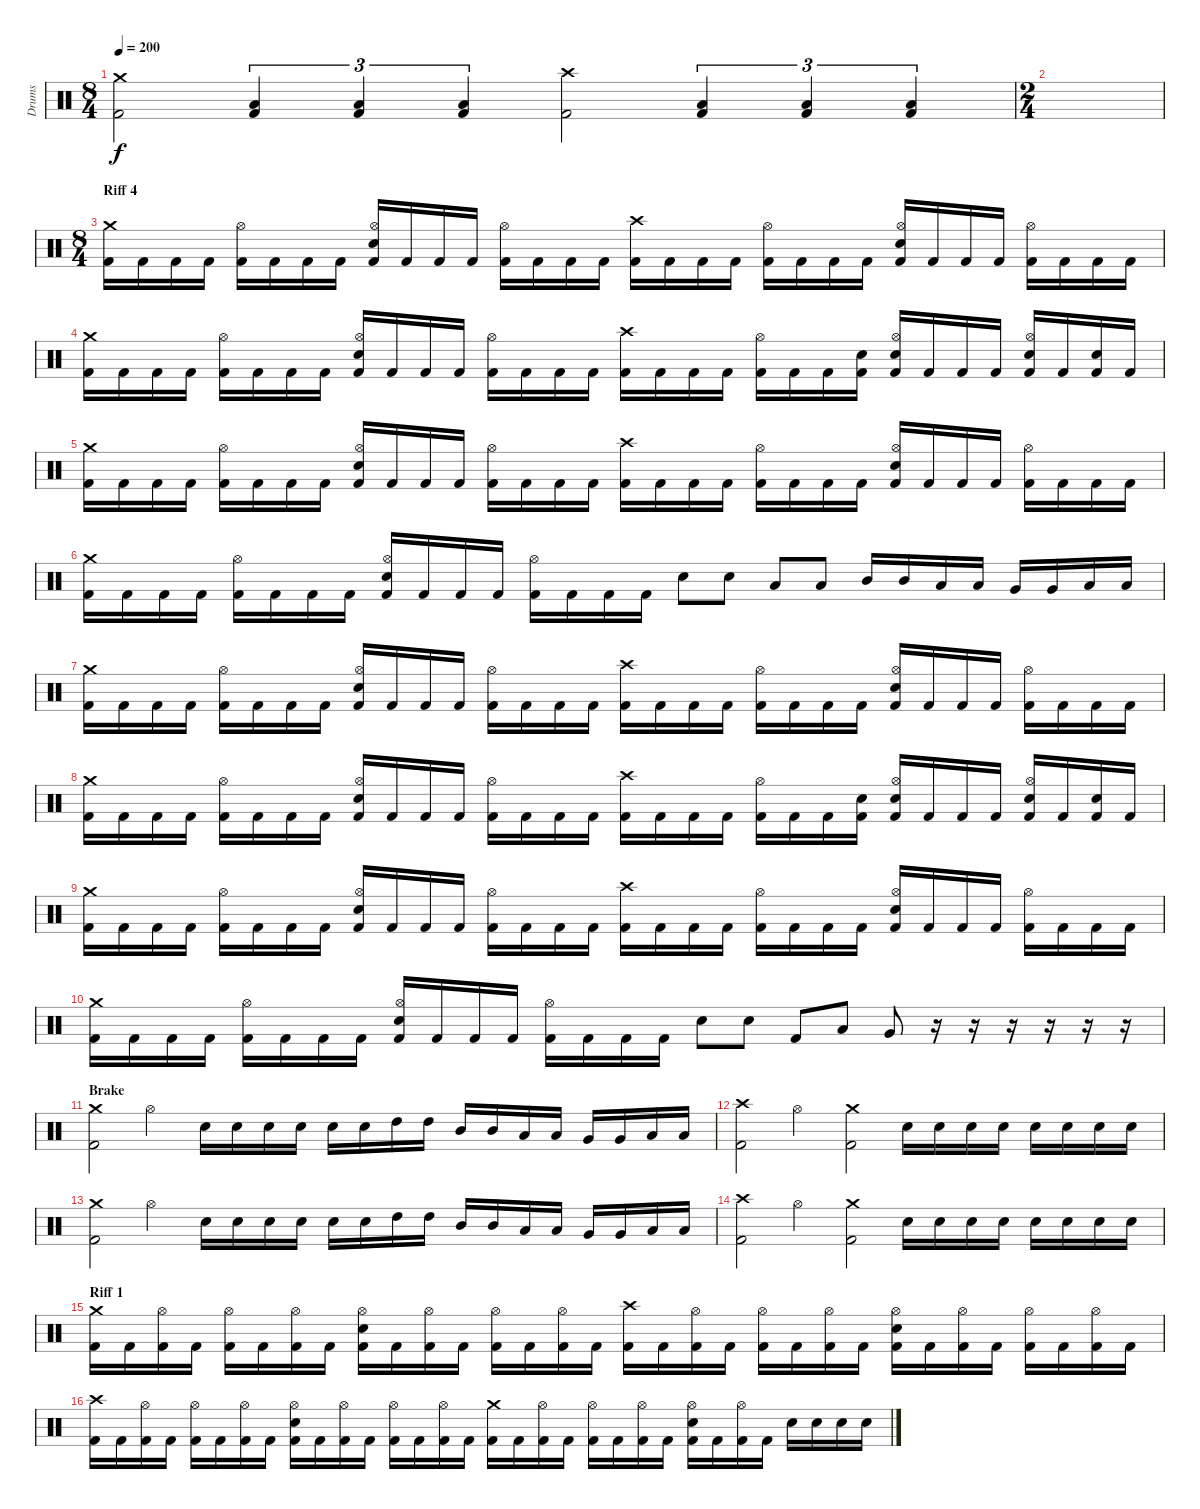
\track ("Drums" "Drums") {instrument percussion}
\staff {score}
\articulation defaults
\ts (8 4)
\tempo 200
\clef neutral
\ks c
("Crash medium (hit)" "Kick (hit) 2").2{dy f} ("Low Tom (hit)" "Kick (hit) 2").4{tu (3 2)} ("Low Tom (hit)" "Kick (hit) 2").4{tu (3 2)} ("Low Tom (hit)" "Kick (hit) 2").4{tu (3 2)} ("Crash high (hit)" "Kick (hit) 2").2 ("Low Tom (hit)" "Kick (hit) 2").4{tu (3 2)} ("Low Tom (hit)" "Kick (hit) 2").4{tu (3 2)} ("Low Tom (hit)" "Kick (hit) 2").4{tu (3 2)} |
\ts (2 4)
|
\ts (8 4)
\section ("" "Riff 4")
("Crash medium (hit)" "Kick (hit) 2").16 "Kick (hit) 2".16 "Kick (hit) 2".16 "Kick (hit) 2".16 ("Hi-Hat (open)" "Kick (hit) 2").16 "Kick (hit) 2".16 "Kick (hit) 2".16 "Kick (hit) 2".16 ("Hi-Hat (open)" "Electric Snare (hit)" "Kick (hit) 2").16 "Kick (hit) 2".16 "Kick (hit) 2".16 "Kick (hit) 2".16 ("Hi-Hat (open)" "Kick (hit) 2").16 "Kick (hit) 2".16 "Kick (hit) 2".16 "Kick (hit) 2".16 ("Crash high (hit)" "Kick (hit) 2").16 "Kick (hit) 2".16 "Kick (hit) 2".16 "Kick (hit) 2".16 ("Hi-Hat (open)" "Kick (hit) 2").16 "Kick (hit) 2".16 "Kick (hit) 2".16 "Kick (hit) 2".16 ("Hi-Hat (open)" "Electric Snare (hit)" "Kick (hit) 2").16 "Kick (hit) 2".16 "Kick (hit) 2".16 "Kick (hit) 2".16 ("Hi-Hat (open)" "Kick (hit) 2").16 "Kick (hit) 2".16 "Kick (hit) 2".16 "Kick (hit) 2".16 |
("Crash medium (hit)" "Kick (hit) 2").16 "Kick (hit) 2".16 "Kick (hit) 2".16 "Kick (hit) 2".16 ("Hi-Hat (open)" "Kick (hit) 2").16 "Kick (hit) 2".16 "Kick (hit) 2".16 "Kick (hit) 2".16 ("Hi-Hat (open)" "Electric Snare (hit)" "Kick (hit) 2").16 "Kick (hit) 2".16 "Kick (hit) 2".16 "Kick (hit) 2".16 ("Hi-Hat (open)" "Kick (hit) 2").16 "Kick (hit) 2".16 "Kick (hit) 2".16 "Kick (hit) 2".16 ("Crash high (hit)" "Kick (hit) 2").16 "Kick (hit) 2".16 "Kick (hit) 2".16 "Kick (hit) 2".16 ("Hi-Hat (open)" "Kick (hit) 2").16 "Kick (hit) 2".16 "Kick (hit) 2".16 ("Electric Snare (hit)" "Kick (hit) 2").16 ("Hi-Hat (open)" "Electric Snare (hit)" "Kick (hit) 2").16 "Kick (hit) 2".16 "Kick (hit) 2".16 "Kick (hit) 2".16 ("Hi-Hat (open)" "Electric Snare (hit)" "Kick (hit) 2").16 "Kick (hit) 2".16 ("Electric Snare (hit)" "Kick (hit) 2").16 "Kick (hit) 2".16 |
("Crash medium (hit)" "Kick (hit) 2").16 "Kick (hit) 2".16 "Kick (hit) 2".16 "Kick (hit) 2".16 ("Hi-Hat (open)" "Kick (hit) 2").16 "Kick (hit) 2".16 "Kick (hit) 2".16 "Kick (hit) 2".16 ("Hi-Hat (open)" "Electric Snare (hit)" "Kick (hit) 2").16 "Kick (hit) 2".16 "Kick (hit) 2".16 "Kick (hit) 2".16 ("Hi-Hat (open)" "Kick (hit) 2").16 "Kick (hit) 2".16 "Kick (hit) 2".16 "Kick (hit) 2".16 ("Crash high (hit)" "Kick (hit) 2").16 "Kick (hit) 2".16 "Kick (hit) 2".16 "Kick (hit) 2".16 ("Hi-Hat (open)" "Kick (hit) 2").16 "Kick (hit) 2".16 "Kick (hit) 2".16 "Kick (hit) 2".16 ("Hi-Hat (open)" "Electric Snare (hit)" "Kick (hit) 2").16 "Kick (hit) 2".16 "Kick (hit) 2".16 "Kick (hit) 2".16 ("Hi-Hat (open)" "Kick (hit) 2").16 "Kick (hit) 2".16 "Kick (hit) 2".16 "Kick (hit) 2".16 |
("Crash medium (hit)" "Kick (hit) 2").16 "Kick (hit) 2".16 "Kick (hit) 2".16 "Kick (hit) 2".16 ("Hi-Hat (open)" "Kick (hit) 2").16 "Kick (hit) 2".16 "Kick (hit) 2".16 "Kick (hit) 2".16 ("Hi-Hat (open)" "Electric Snare (hit)" "Kick (hit) 2").16 "Kick (hit) 2".16 "Kick (hit) 2".16 "Kick (hit) 2".16 ("Hi-Hat (open)" "Kick (hit) 2").16 "Kick (hit) 2".16 "Kick (hit) 2".16 "Kick (hit) 2".16 "Electric Snare (hit)".8 "Electric Snare (hit)".8 "Low Tom (hit)".8 "Low Tom (hit)".8 "Mid Tom (hit)".16 "Mid Tom (hit)".16 "Low Tom (hit)".16 "Low Tom (hit)".16 "Very Low Tom (hit)".16 "Very Low Tom (hit)".16 "Low Floor Tom (hit)".16 "Low Floor Tom (hit)".16 |
("Crash medium (hit)" "Kick (hit) 2").16 "Kick (hit) 2".16 "Kick (hit) 2".16 "Kick (hit) 2".16 ("Hi-Hat (open)" "Kick (hit) 2").16 "Kick (hit) 2".16 "Kick (hit) 2".16 "Kick (hit) 2".16 ("Hi-Hat (open)" "Electric Snare (hit)" "Kick (hit) 2").16 "Kick (hit) 2".16 "Kick (hit) 2".16 "Kick (hit) 2".16 ("Hi-Hat (open)" "Kick (hit) 2").16 "Kick (hit) 2".16 "Kick (hit) 2".16 "Kick (hit) 2".16 ("Crash high (hit)" "Kick (hit) 2").16 "Kick (hit) 2".16 "Kick (hit) 2".16 "Kick (hit) 2".16 ("Hi-Hat (open)" "Kick (hit) 2").16 "Kick (hit) 2".16 "Kick (hit) 2".16 "Kick (hit) 2".16 ("Hi-Hat (open)" "Electric Snare (hit)" "Kick (hit) 2").16 "Kick (hit) 2".16 "Kick (hit) 2".16 "Kick (hit) 2".16 ("Hi-Hat (open)" "Kick (hit) 2").16 "Kick (hit) 2".16 "Kick (hit) 2".16 "Kick (hit) 2".16 |
("Crash medium (hit)" "Kick (hit) 2").16 "Kick (hit) 2".16 "Kick (hit) 2".16 "Kick (hit) 2".16 ("Hi-Hat (open)" "Kick (hit) 2").16 "Kick (hit) 2".16 "Kick (hit) 2".16 "Kick (hit) 2".16 ("Hi-Hat (open)" "Electric Snare (hit)" "Kick (hit) 2").16 "Kick (hit) 2".16 "Kick (hit) 2".16 "Kick (hit) 2".16 ("Hi-Hat (open)" "Kick (hit) 2").16 "Kick (hit) 2".16 "Kick (hit) 2".16 "Kick (hit) 2".16 ("Crash high (hit)" "Kick (hit) 2").16 "Kick (hit) 2".16 "Kick (hit) 2".16 "Kick (hit) 2".16 ("Hi-Hat (open)" "Kick (hit) 2").16 "Kick (hit) 2".16 "Kick (hit) 2".16 ("Electric Snare (hit)" "Kick (hit) 2").16 ("Hi-Hat (open)" "Electric Snare (hit)" "Kick (hit) 2").16 "Kick (hit) 2".16 "Kick (hit) 2".16 "Kick (hit) 2".16 ("Hi-Hat (open)" "Electric Snare (hit)" "Kick (hit) 2").16 "Kick (hit) 2".16 ("Electric Snare (hit)" "Kick (hit) 2").16 "Kick (hit) 2".16 |
("Crash medium (hit)" "Kick (hit) 2").16 "Kick (hit) 2".16 "Kick (hit) 2".16 "Kick (hit) 2".16 ("Hi-Hat (open)" "Kick (hit) 2").16 "Kick (hit) 2".16 "Kick (hit) 2".16 "Kick (hit) 2".16 ("Hi-Hat (open)" "Electric Snare (hit)" "Kick (hit) 2").16 "Kick (hit) 2".16 "Kick (hit) 2".16 "Kick (hit) 2".16 ("Hi-Hat (open)" "Kick (hit) 2").16 "Kick (hit) 2".16 "Kick (hit) 2".16 "Kick (hit) 2".16 ("Crash high (hit)" "Kick (hit) 2").16 "Kick (hit) 2".16 "Kick (hit) 2".16 "Kick (hit) 2".16 ("Hi-Hat (open)" "Kick (hit) 2").16 "Kick (hit) 2".16 "Kick (hit) 2".16 "Kick (hit) 2".16 ("Hi-Hat (open)" "Electric Snare (hit)" "Kick (hit) 2").16 "Kick (hit) 2".16 "Kick (hit) 2".16 "Kick (hit) 2".16 ("Hi-Hat (open)" "Kick (hit) 2").16 "Kick (hit) 2".16 "Kick (hit) 2".16 "Kick (hit) 2".16 |
("Crash medium (hit)" "Kick (hit) 2").16 "Kick (hit) 2".16 "Kick (hit) 2".16 "Kick (hit) 2".16 ("Hi-Hat (open)" "Kick (hit) 2").16 "Kick (hit) 2".16 "Kick (hit) 2".16 "Kick (hit) 2".16 ("Hi-Hat (open)" "Electric Snare (hit)" "Kick (hit) 2").16 "Kick (hit) 2".16 "Kick (hit) 2".16 "Kick (hit) 2".16 ("Hi-Hat (open)" "Kick (hit) 2").16 "Kick (hit) 2".16 "Kick (hit) 2".16 "Kick (hit) 2".16 "Electric Snare (hit)".8 "Electric Snare (hit)".8 "Kick (hit) 2".8 "Low Tom (hit)".8 "Very Low Tom (hit)".8 r.16 r.16 r.16 r.16 r.16 r.16 |
\section ("" "Brake")
("Crash medium (hit)" "Kick (hit) 2").2 "Hi-Hat (open)".2 "Electric Snare (hit)".16 "Electric Snare (hit)".16 "Electric Snare (hit)".16 "Electric Snare (hit)".16 "Electric Snare (hit)".16 "Electric Snare (hit)".16 "High Tom (hit)".16 "High Tom (hit)".16 "Mid Tom (hit)".16 "Mid Tom (hit)".16 "Low Tom (hit)".16 "Low Tom (hit)".16 "Very Low Tom (hit)".16 "Very Low Tom (hit)".16 "Low Floor Tom (hit)".16 "Low Floor Tom (hit)".16 |
("Crash high (hit)" "Kick (hit) 2").2 "Hi-Hat (open)".2 ("Crash medium (hit)" "Kick (hit) 2").2 "Electric Snare (hit)".16 "Electric Snare (hit)".16 "Electric Snare (hit)".16 "Electric Snare (hit)".16 "Electric Snare (hit)".16 "Electric Snare (hit)".16 "Electric Snare (hit)".16 "Electric Snare (hit)".16 |
("Crash medium (hit)" "Kick (hit) 2").2 "Hi-Hat (open)".2 "Electric Snare (hit)".16 "Electric Snare (hit)".16 "Electric Snare (hit)".16 "Electric Snare (hit)".16 "Electric Snare (hit)".16 "Electric Snare (hit)".16 "High Tom (hit)".16 "High Tom (hit)".16 "Mid Tom (hit)".16 "Mid Tom (hit)".16 "Low Tom (hit)".16 "Low Tom (hit)".16 "Very Low Tom (hit)".16 "Very Low Tom (hit)".16 "Low Floor Tom (hit)".16 "Low Floor Tom (hit)".16 |
("Crash high (hit)" "Kick (hit) 2").2 "Hi-Hat (open)".2 ("Crash medium (hit)" "Kick (hit) 2").2 "Electric Snare (hit)".16 "Electric Snare (hit)".16 "Electric Snare (hit)".16 "Electric Snare (hit)".16 "Electric Snare (hit)".16 "Electric Snare (hit)".16 "Electric Snare (hit)".16 "Electric Snare (hit)".16 |
\section ("" "Riff 1")
("Crash medium (hit)" "Kick (hit) 2").16 "Kick (hit) 2".16 ("Hi-Hat (open)" "Kick (hit) 2").16 "Kick (hit) 2".16 ("Hi-Hat (open)" "Kick (hit) 2").16 "Kick (hit) 2".16 ("Hi-Hat (open)" "Kick (hit) 2").16 "Kick (hit) 2".16 ("Hi-Hat (open)" "Electric Snare (hit)" "Kick (hit) 2").16 "Kick (hit) 2".16 ("Hi-Hat (open)" "Kick (hit) 2").16 "Kick (hit) 2".16 ("Hi-Hat (open)" "Kick (hit) 2").16 "Kick (hit) 2".16 ("Hi-Hat (open)" "Kick (hit) 2").16 "Kick (hit) 2".16 ("Crash high (hit)" "Kick (hit) 2").16 "Kick (hit) 2".16 ("Hi-Hat (open)" "Kick (hit) 2").16 "Kick (hit) 2".16 ("Hi-Hat (open)" "Kick (hit) 2").16 "Kick (hit) 2".16 ("Hi-Hat (open)" "Kick (hit) 2").16 "Kick (hit) 2".16 ("Hi-Hat (open)" "Electric Snare (hit)" "Kick (hit) 2").16 "Kick (hit) 2".16 ("Hi-Hat (open)" "Kick (hit) 2").16 "Kick (hit) 2".16 ("Hi-Hat (open)" "Kick (hit) 2").16 "Kick (hit) 2".16 ("Hi-Hat (open)" "Kick (hit) 2").16 "Kick (hit) 2".16 |
("Crash high (hit)" "Kick (hit) 2").16 "Kick (hit) 2".16 ("Hi-Hat (open)" "Kick (hit) 2").16 "Kick (hit) 2".16 ("Hi-Hat (open)" "Kick (hit) 2").16 "Kick (hit) 2".16 ("Hi-Hat (open)" "Kick (hit) 2").16 "Kick (hit) 2".16 ("Hi-Hat (open)" "Electric Snare (hit)" "Kick (hit) 2").16 "Kick (hit) 2".16 ("Hi-Hat (open)" "Kick (hit) 2").16 "Kick (hit) 2".16 ("Hi-Hat (open)" "Kick (hit) 2").16 "Kick (hit) 2".16 ("Hi-Hat (open)" "Kick (hit) 2").16 "Kick (hit) 2".16 ("Crash medium (hit)" "Kick (hit) 2").16 "Kick (hit) 2".16 ("Hi-Hat (open)" "Kick (hit) 2").16 "Kick (hit) 2".16 ("Hi-Hat (open)" "Kick (hit) 2").16 "Kick (hit) 2".16 ("Hi-Hat (open)" "Kick (hit) 2").16 "Kick (hit) 2".16 ("Hi-Hat (open)" "Electric Snare (hit)" "Kick (hit) 2").16 "Kick (hit) 2".16 ("Hi-Hat (open)" "Kick (hit) 2").16 "Kick (hit) 2".16 "Electric Snare (hit)".16 "Electric Snare (hit)".16 "Electric Snare (hit)".16 "Electric Snare (hit)".16
